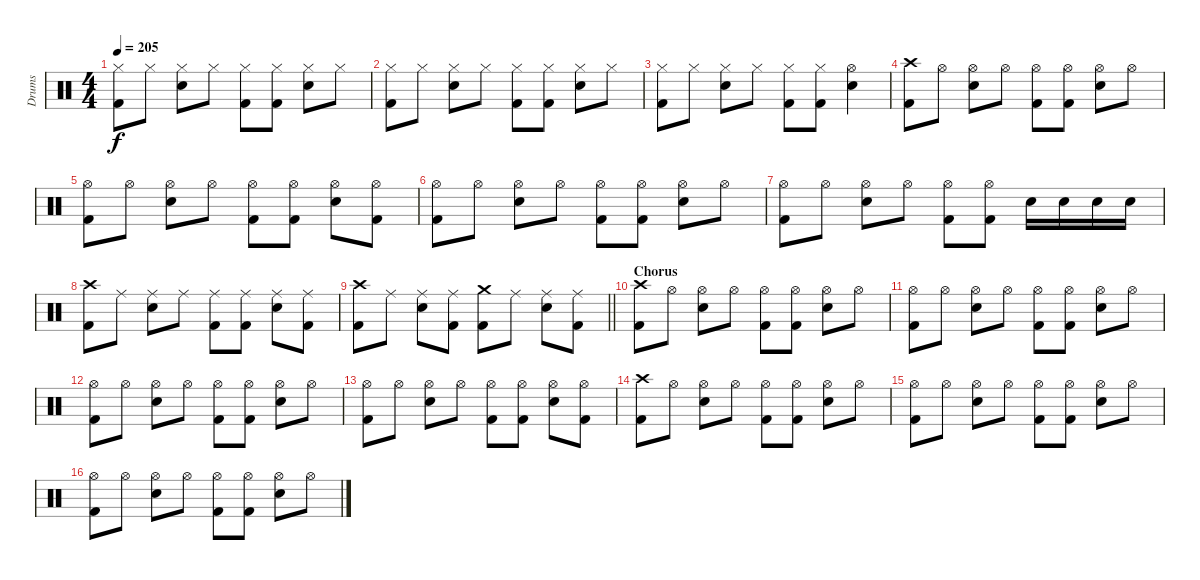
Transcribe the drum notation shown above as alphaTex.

\track ("Drums" "Drums") {instrument percussion}
\staff {score}
\articulation defaults
\ts (4 4)
\tempo 205
\clef neutral
\ks c
("Hi-Hat (closed)" "Kick (hit) 2").8{dy f} "Hi-Hat (closed)".8 ("Hi-Hat (closed)" "Electric Snare (hit)").8 "Hi-Hat (closed)".8 ("Hi-Hat (closed)" "Kick (hit) 2").8 ("Hi-Hat (closed)" "Kick (hit) 2").8 ("Hi-Hat (closed)" "Electric Snare (hit)").8 "Hi-Hat (closed)".8 |
("Hi-Hat (closed)" "Kick (hit) 2").8 "Hi-Hat (closed)".8 ("Hi-Hat (closed)" "Electric Snare (hit)").8 "Hi-Hat (closed)".8 ("Hi-Hat (closed)" "Kick (hit) 2").8 ("Hi-Hat (closed)" "Kick (hit) 2").8 ("Hi-Hat (closed)" "Electric Snare (hit)").8 "Hi-Hat (closed)".8 |
("Hi-Hat (closed)" "Kick (hit) 2").8 "Hi-Hat (closed)".8 ("Hi-Hat (closed)" "Electric Snare (hit)").8 "Hi-Hat (closed)".8 ("Hi-Hat (closed)" "Kick (hit) 2").8 ("Hi-Hat (closed)" "Kick (hit) 2").8 ("Hi-Hat (open)" "Electric Snare (hit)").4 |
("Crash high (hit)" "Kick (hit) 2").8 "Hi-Hat (open)".8 ("Hi-Hat (open)" "Electric Snare (hit)").8 "Hi-Hat (open)".8 ("Hi-Hat (open)" "Kick (hit) 2").8 ("Hi-Hat (open)" "Kick (hit) 2").8 ("Hi-Hat (open)" "Electric Snare (hit)").8 "Hi-Hat (open)".8 |
("Hi-Hat (open)" "Kick (hit) 2").8 "Hi-Hat (open)".8 ("Hi-Hat (open)" "Electric Snare (hit)").8 "Hi-Hat (open)".8 ("Hi-Hat (open)" "Kick (hit) 2").8 ("Hi-Hat (open)" "Kick (hit) 2").8 ("Hi-Hat (open)" "Electric Snare (hit)").8 ("Hi-Hat (open)" "Kick (hit) 2").8 |
("Hi-Hat (open)" "Kick (hit) 2").8 "Hi-Hat (open)".8 ("Hi-Hat (open)" "Electric Snare (hit)").8 "Hi-Hat (open)".8 ("Hi-Hat (open)" "Kick (hit) 2").8 ("Hi-Hat (open)" "Kick (hit) 2").8 ("Hi-Hat (open)" "Electric Snare (hit)").8 "Hi-Hat (open)".8 |
("Hi-Hat (open)" "Kick (hit) 2").8 "Hi-Hat (open)".8 ("Hi-Hat (open)" "Electric Snare (hit)").8 "Hi-Hat (open)".8 ("Hi-Hat (open)" "Kick (hit) 2").8 ("Hi-Hat (open)" "Kick (hit) 2").8 "Electric Snare (hit)".16 "Electric Snare (hit)".16 "Electric Snare (hit)".16 "Electric Snare (hit)".16 |
("Crash high (hit)" "Kick (hit) 2").8 "Ride (middle)".8 ("Ride (middle)" "Electric Snare (hit)").8 "Ride (middle)".8 ("Ride (middle)" "Kick (hit) 2").8 ("Ride (middle)" "Kick (hit) 2").8 ("Ride (middle)" "Electric Snare (hit)").8 ("Ride (middle)" "Kick (hit) 2").8 |
\barLineRight lightlight
("Crash high (hit)" "Kick (hit) 2").8 "Ride (middle)".8 ("Ride (middle)" "Electric Snare (hit)").8 ("Ride (middle)" "Kick (hit) 2").8 ("Crash medium (hit)" "Kick (hit) 2").8 "Ride (middle)".8 ("Ride (middle)" "Electric Snare (hit)").8 ("Ride (middle)" "Kick (hit) 2").8 |
\section ("" "Chorus")
("Crash high (hit)" "Kick (hit) 2").8 "Hi-Hat (open)".8 ("Hi-Hat (open)" "Electric Snare (hit)").8 "Hi-Hat (open)".8 ("Hi-Hat (open)" "Kick (hit) 2").8 ("Hi-Hat (open)" "Kick (hit) 2").8 ("Hi-Hat (open)" "Electric Snare (hit)").8 "Hi-Hat (open)".8 |
("Hi-Hat (open)" "Kick (hit) 2").8 "Hi-Hat (open)".8 ("Hi-Hat (open)" "Electric Snare (hit)").8 "Hi-Hat (open)".8 ("Hi-Hat (open)" "Kick (hit) 2").8 ("Hi-Hat (open)" "Kick (hit) 2").8 ("Hi-Hat (open)" "Electric Snare (hit)").8 "Hi-Hat (open)".8 |
("Hi-Hat (open)" "Kick (hit) 2").8 "Hi-Hat (open)".8 ("Hi-Hat (open)" "Electric Snare (hit)").8 "Hi-Hat (open)".8 ("Hi-Hat (open)" "Kick (hit) 2").8 ("Hi-Hat (open)" "Kick (hit) 2").8 ("Hi-Hat (open)" "Electric Snare (hit)").8 "Hi-Hat (open)".8 |
("Hi-Hat (open)" "Kick (hit) 2").8 "Hi-Hat (open)".8 ("Hi-Hat (open)" "Electric Snare (hit)").8 "Hi-Hat (open)".8 ("Hi-Hat (open)" "Kick (hit) 2").8 ("Hi-Hat (open)" "Kick (hit) 2").8 ("Hi-Hat (open)" "Electric Snare (hit)").8 ("Hi-Hat (open)" "Kick (hit) 2").8 |
("Crash high (hit)" "Kick (hit) 2").8 "Hi-Hat (open)".8 ("Hi-Hat (open)" "Electric Snare (hit)").8 "Hi-Hat (open)".8 ("Hi-Hat (open)" "Kick (hit) 2").8 ("Hi-Hat (open)" "Kick (hit) 2").8 ("Hi-Hat (open)" "Electric Snare (hit)").8 "Hi-Hat (open)".8 |
("Hi-Hat (open)" "Kick (hit) 2").8 "Hi-Hat (open)".8 ("Hi-Hat (open)" "Electric Snare (hit)").8 "Hi-Hat (open)".8 ("Hi-Hat (open)" "Kick (hit) 2").8 ("Hi-Hat (open)" "Kick (hit) 2").8 ("Hi-Hat (open)" "Electric Snare (hit)").8 "Hi-Hat (open)".8 |
("Hi-Hat (open)" "Kick (hit) 2").8 "Hi-Hat (open)".8 ("Hi-Hat (open)" "Electric Snare (hit)").8 "Hi-Hat (open)".8 ("Hi-Hat (open)" "Kick (hit) 2").8 ("Hi-Hat (open)" "Kick (hit) 2").8 ("Hi-Hat (open)" "Electric Snare (hit)").8 "Hi-Hat (open)".8
